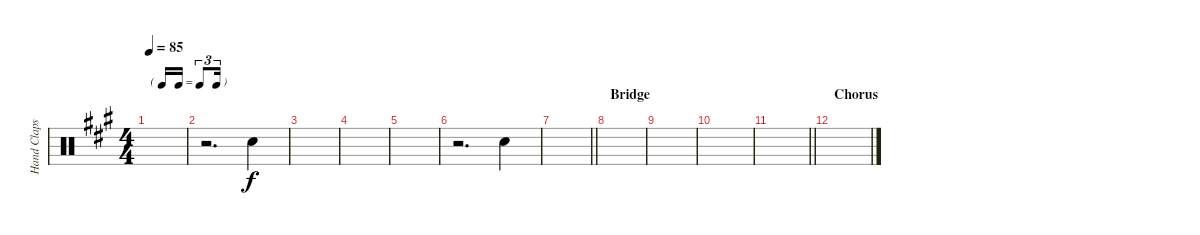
\track ("Hand Claps" "Hand Claps") {instrument percussion}
\staff {score}
\articulation defaults
\ts (4 4)
\tf triplet16th
\tempo 85
\clef neutral
\ks a
|
r.2{d} "Hand Clap (hit)".4 |
|
|
|
r.2{d} "Hand Clap (hit)".4 |
\barLineRight lightlight
|
\section ("" "Bridge")
|
|
|
\barLineRight lightlight
|
\section ("" "Chorus")
